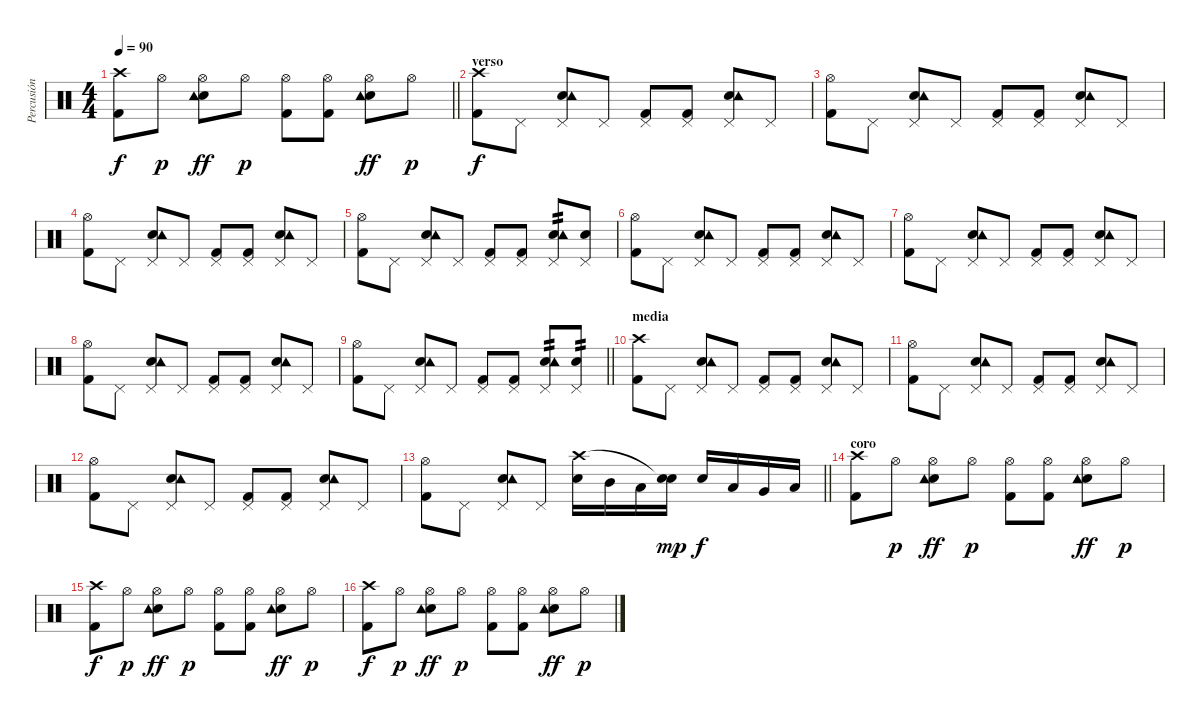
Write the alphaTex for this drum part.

\track ("Percusión" "Percusión") {instrument percussion}
\staff {score}
\articulation defaults
\ts (4 4)
\tempo 90
\clef neutral
\barLineRight lightlight
\ks c
("Crash high (hit)" "Kick (hit) 2").8{dy f} "Hi-Hat (open)".8{dy p} ("Hi-Hat (open)" "Snare (hit) 2" "Tambourine (hit)").8{dy ff} "Hi-Hat (open)".8{dy p} ("Hi-Hat (open)" "Kick (hit) 2").8 ("Hi-Hat (open)" "Kick (hit) 2").8 ("Hi-Hat (open)" "Snare (hit) 2" "Tambourine (hit)").8{dy ff} "Hi-Hat (open)".8{dy p} |
\section ("" "verso")
("Crash high (hit)" "Kick (hit) 2").8{dy f} "Pedal Hi-Hat (hit)".8 ("Pedal Hi-Hat (hit)" "Snare (hit) 2" "Tambourine (hit)").8 "Pedal Hi-Hat (hit)".8 ("Pedal Hi-Hat (hit)" "Kick (hit) 2").8 ("Pedal Hi-Hat (hit)" "Kick (hit) 2").8 ("Pedal Hi-Hat (hit)" "Snare (hit) 2" "Tambourine (hit)").8 "Pedal Hi-Hat (hit)".8 |
("Hi-Hat (open)" "Kick (hit) 2").8 "Pedal Hi-Hat (hit)".8 ("Pedal Hi-Hat (hit)" "Snare (hit) 2" "Tambourine (hit)").8 "Pedal Hi-Hat (hit)".8 ("Pedal Hi-Hat (hit)" "Kick (hit) 2").8 ("Pedal Hi-Hat (hit)" "Kick (hit) 2").8 ("Pedal Hi-Hat (hit)" "Snare (hit) 2" "Tambourine (hit)").8 "Pedal Hi-Hat (hit)".8 |
("Hi-Hat (open)" "Kick (hit) 2").8 "Pedal Hi-Hat (hit)".8 ("Pedal Hi-Hat (hit)" "Snare (hit) 2" "Tambourine (hit)").8 "Pedal Hi-Hat (hit)".8 ("Pedal Hi-Hat (hit)" "Kick (hit) 2").8 ("Pedal Hi-Hat (hit)" "Kick (hit) 2").8 ("Pedal Hi-Hat (hit)" "Snare (hit) 2" "Tambourine (hit)").8 "Pedal Hi-Hat (hit)".8 |
("Hi-Hat (open)" "Kick (hit) 2").8 "Pedal Hi-Hat (hit)".8 ("Pedal Hi-Hat (hit)" "Snare (hit) 2" "Tambourine (hit)").8 "Pedal Hi-Hat (hit)".8 ("Pedal Hi-Hat (hit)" "Kick (hit) 2").8 ("Pedal Hi-Hat (hit)" "Kick (hit) 2").8 ("Pedal Hi-Hat (hit)" "Snare (hit) 2" "Tambourine (hit)").8{tp 2} ("Pedal Hi-Hat (hit)" "Snare (hit) 2").8 |
("Hi-Hat (open)" "Kick (hit) 2").8 "Pedal Hi-Hat (hit)".8 ("Pedal Hi-Hat (hit)" "Snare (hit) 2" "Tambourine (hit)").8 "Pedal Hi-Hat (hit)".8 ("Pedal Hi-Hat (hit)" "Kick (hit) 2").8 ("Pedal Hi-Hat (hit)" "Kick (hit) 2").8 ("Pedal Hi-Hat (hit)" "Snare (hit) 2" "Tambourine (hit)").8 "Pedal Hi-Hat (hit)".8 |
("Hi-Hat (open)" "Kick (hit) 2").8 "Pedal Hi-Hat (hit)".8 ("Pedal Hi-Hat (hit)" "Snare (hit) 2" "Tambourine (hit)").8 "Pedal Hi-Hat (hit)".8 ("Pedal Hi-Hat (hit)" "Kick (hit) 2").8 ("Pedal Hi-Hat (hit)" "Kick (hit) 2").8 ("Pedal Hi-Hat (hit)" "Snare (hit) 2" "Tambourine (hit)").8 "Pedal Hi-Hat (hit)".8 |
("Hi-Hat (open)" "Kick (hit) 2").8 "Pedal Hi-Hat (hit)".8 ("Pedal Hi-Hat (hit)" "Snare (hit) 2" "Tambourine (hit)").8 "Pedal Hi-Hat (hit)".8 ("Pedal Hi-Hat (hit)" "Kick (hit) 2").8 ("Pedal Hi-Hat (hit)" "Kick (hit) 2").8 ("Pedal Hi-Hat (hit)" "Snare (hit) 2" "Tambourine (hit)").8 "Pedal Hi-Hat (hit)".8 |
\barLineRight lightlight
("Hi-Hat (open)" "Kick (hit) 2").8 "Pedal Hi-Hat (hit)".8 ("Pedal Hi-Hat (hit)" "Snare (hit) 2" "Tambourine (hit)").8 "Pedal Hi-Hat (hit)".8 ("Pedal Hi-Hat (hit)" "Kick (hit) 2").8 ("Pedal Hi-Hat (hit)" "Kick (hit) 2").8 ("Pedal Hi-Hat (hit)" "Snare (hit) 2" "Tambourine (hit)").8{tp 2} ("Pedal Hi-Hat (hit)" "Snare (hit) 2").8{tp 2} |
\section ("" "media")
("Crash high (hit)" "Kick (hit) 2").8 "Pedal Hi-Hat (hit)".8 ("Pedal Hi-Hat (hit)" "Snare (hit) 2" "Tambourine (hit)").8 "Pedal Hi-Hat (hit)".8 ("Pedal Hi-Hat (hit)" "Kick (hit) 2").8 ("Pedal Hi-Hat (hit)" "Kick (hit) 2").8 ("Pedal Hi-Hat (hit)" "Snare (hit) 2" "Tambourine (hit)").8 "Pedal Hi-Hat (hit)".8 |
("Hi-Hat (open)" "Kick (hit) 2").8 "Pedal Hi-Hat (hit)".8 ("Pedal Hi-Hat (hit)" "Snare (hit) 2" "Tambourine (hit)").8 "Pedal Hi-Hat (hit)".8 ("Pedal Hi-Hat (hit)" "Kick (hit) 2").8 ("Pedal Hi-Hat (hit)" "Kick (hit) 2").8 ("Pedal Hi-Hat (hit)" "Snare (hit) 2" "Tambourine (hit)").8 "Pedal Hi-Hat (hit)".8 |
("Hi-Hat (open)" "Kick (hit) 2").8 "Pedal Hi-Hat (hit)".8 ("Pedal Hi-Hat (hit)" "Snare (hit) 2" "Tambourine (hit)").8 "Pedal Hi-Hat (hit)".8 ("Pedal Hi-Hat (hit)" "Kick (hit) 2").8 ("Pedal Hi-Hat (hit)" "Kick (hit) 2").8 ("Pedal Hi-Hat (hit)" "Snare (hit) 2" "Tambourine (hit)").8 "Pedal Hi-Hat (hit)".8 |
\barLineRight lightlight
("Hi-Hat (open)" "Kick (hit) 2").8 "Pedal Hi-Hat (hit)".8 ("Pedal Hi-Hat (hit)" "Snare (hit) 2" "Tambourine (hit)").8 "Pedal Hi-Hat (hit)".8 ("Snare (hit) 2" "Crash high (hit)").16 "Mid Tom (hit)".16 "Low Tom (hit)".16 ("Snare (hit) 2" "Snare (hit)"{t}).16{dy mp} "Snare (hit) 2".16{dy f} "Low Tom (hit)".16 "Very Low Tom (hit)".16 "Low Floor Tom (hit)".16 |
\section ("" "coro")
("Crash high (hit)" "Kick (hit) 2").8 "Hi-Hat (open)".8{dy p} ("Hi-Hat (open)" "Snare (hit) 2" "Tambourine (hit)").8{dy ff} "Hi-Hat (open)".8{dy p} ("Hi-Hat (open)" "Kick (hit) 2").8 ("Hi-Hat (open)" "Kick (hit) 2").8 ("Hi-Hat (open)" "Snare (hit) 2" "Tambourine (hit)").8{dy ff} "Hi-Hat (open)".8{dy p} |
("Crash high (hit)" "Kick (hit) 2").8{dy f} "Hi-Hat (open)".8{dy p} ("Hi-Hat (open)" "Snare (hit) 2" "Tambourine (hit)").8{dy ff} "Hi-Hat (open)".8{dy p} ("Hi-Hat (open)" "Kick (hit) 2").8 ("Hi-Hat (open)" "Kick (hit) 2").8 ("Hi-Hat (open)" "Snare (hit) 2" "Tambourine (hit)").8{dy ff} "Hi-Hat (open)".8{dy p} |
("Crash high (hit)" "Kick (hit) 2").8{dy f} "Hi-Hat (open)".8{dy p} ("Hi-Hat (open)" "Snare (hit) 2" "Tambourine (hit)").8{dy ff} "Hi-Hat (open)".8{dy p} ("Hi-Hat (open)" "Kick (hit) 2").8 ("Hi-Hat (open)" "Kick (hit) 2").8 ("Hi-Hat (open)" "Snare (hit) 2" "Tambourine (hit)").8{dy ff} "Hi-Hat (open)".8{dy p}
